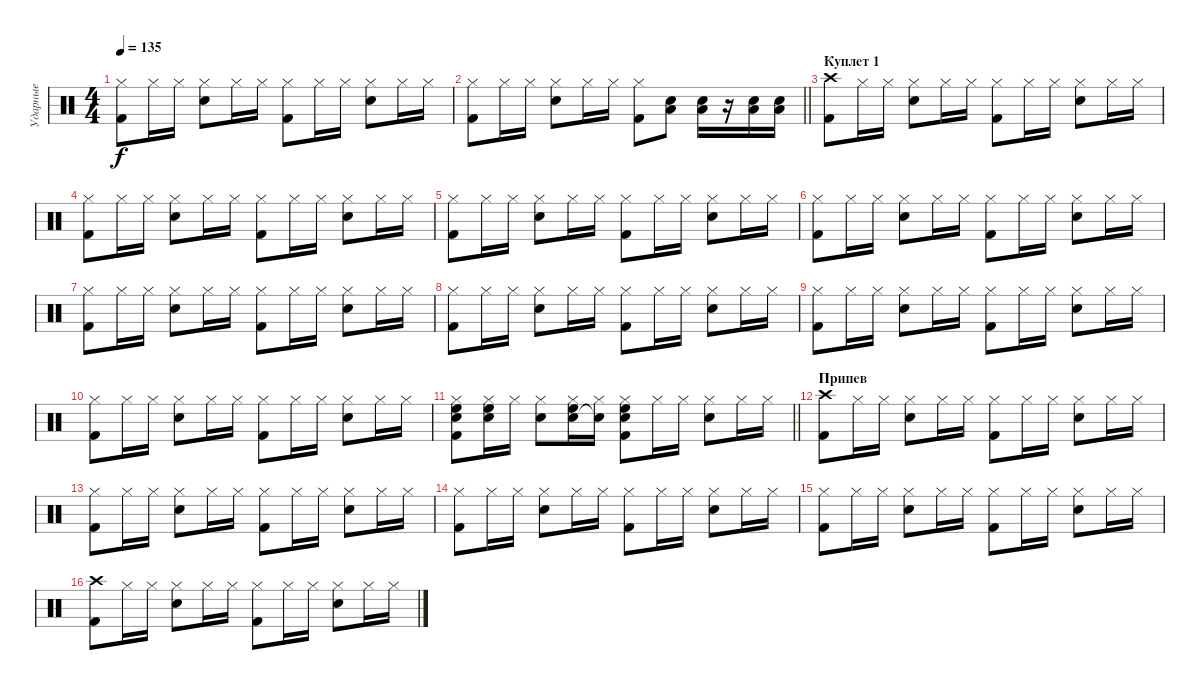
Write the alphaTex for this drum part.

\track ("Ударные" "Ударные") {instrument percussion}
\staff {score}
\articulation defaults
\ts (4 4)
\tempo 135
\clef neutral
\ks c
("Hi-Hat (closed)" "Kick (hit) 2").8{dy f} "Hi-Hat (closed)".16 "Hi-Hat (closed)".16 ("Hi-Hat (closed)" "Electric Snare (hit)").8 "Hi-Hat (closed)".16 "Hi-Hat (closed)".16 ("Hi-Hat (closed)" "Kick (hit) 2").8 "Hi-Hat (closed)".16 "Hi-Hat (closed)".16 ("Hi-Hat (closed)" "Electric Snare (hit)").8 "Hi-Hat (closed)".16 "Hi-Hat (closed)".16 |
\barLineRight lightlight
("Hi-Hat (closed)" "Kick (hit) 2").8 "Hi-Hat (closed)".16 "Hi-Hat (closed)".16 ("Hi-Hat (closed)" "Electric Snare (hit)").8 "Hi-Hat (closed)".16 "Hi-Hat (closed)".16 ("Hi-Hat (closed)" "Kick (hit) 2").8 ("Electric Snare (hit)" "Low Tom (hit)").8 ("Electric Snare (hit)" "Low Tom (hit)").16 r.16 ("Electric Snare (hit)" "Low Tom (hit)").16 ("Electric Snare (hit)" "Low Tom (hit)").16 |
\section ("" "Куплет 1")
("Crash high (hit)" "Kick (hit) 2").8 "Hi-Hat (closed)".16 "Hi-Hat (closed)".16 ("Hi-Hat (closed)" "Electric Snare (hit)").8 "Hi-Hat (closed)".16 "Hi-Hat (closed)".16 ("Hi-Hat (closed)" "Kick (hit) 2").8 "Hi-Hat (closed)".16 "Hi-Hat (closed)".16 ("Hi-Hat (closed)" "Electric Snare (hit)").8 "Hi-Hat (closed)".16 "Hi-Hat (closed)".16 |
("Hi-Hat (closed)" "Kick (hit) 2").8 "Hi-Hat (closed)".16 "Hi-Hat (closed)".16 ("Hi-Hat (closed)" "Electric Snare (hit)").8 "Hi-Hat (closed)".16 "Hi-Hat (closed)".16 ("Hi-Hat (closed)" "Kick (hit) 2").8 "Hi-Hat (closed)".16 "Hi-Hat (closed)".16 ("Hi-Hat (closed)" "Electric Snare (hit)").8 "Hi-Hat (closed)".16 "Hi-Hat (closed)".16 |
("Hi-Hat (closed)" "Kick (hit) 2").8 "Hi-Hat (closed)".16 "Hi-Hat (closed)".16 ("Hi-Hat (closed)" "Electric Snare (hit)").8 "Hi-Hat (closed)".16 "Hi-Hat (closed)".16 ("Hi-Hat (closed)" "Kick (hit) 2").8 "Hi-Hat (closed)".16 "Hi-Hat (closed)".16 ("Hi-Hat (closed)" "Electric Snare (hit)").8 "Hi-Hat (closed)".16 "Hi-Hat (closed)".16 |
("Hi-Hat (closed)" "Kick (hit) 2").8 "Hi-Hat (closed)".16 "Hi-Hat (closed)".16 ("Hi-Hat (closed)" "Electric Snare (hit)").8 "Hi-Hat (closed)".16 "Hi-Hat (closed)".16 ("Hi-Hat (closed)" "Kick (hit) 2").8 "Hi-Hat (closed)".16 "Hi-Hat (closed)".16 ("Hi-Hat (closed)" "Electric Snare (hit)").8 "Hi-Hat (closed)".16 "Hi-Hat (closed)".16 |
("Hi-Hat (closed)" "Kick (hit) 2").8 "Hi-Hat (closed)".16 "Hi-Hat (closed)".16 ("Hi-Hat (closed)" "Electric Snare (hit)").8 "Hi-Hat (closed)".16 "Hi-Hat (closed)".16 ("Hi-Hat (closed)" "Kick (hit) 2").8 "Hi-Hat (closed)".16 "Hi-Hat (closed)".16 ("Hi-Hat (closed)" "Electric Snare (hit)").8 "Hi-Hat (closed)".16 "Hi-Hat (closed)".16 |
("Hi-Hat (closed)" "Kick (hit) 2").8 "Hi-Hat (closed)".16 "Hi-Hat (closed)".16 ("Hi-Hat (closed)" "Electric Snare (hit)").8 "Hi-Hat (closed)".16 "Hi-Hat (closed)".16 ("Hi-Hat (closed)" "Kick (hit) 2").8 "Hi-Hat (closed)".16 "Hi-Hat (closed)".16 ("Hi-Hat (closed)" "Electric Snare (hit)").8 "Hi-Hat (closed)".16 "Hi-Hat (closed)".16 |
("Hi-Hat (closed)" "Kick (hit) 2").8 "Hi-Hat (closed)".16 "Hi-Hat (closed)".16 ("Hi-Hat (closed)" "Electric Snare (hit)").8 "Hi-Hat (closed)".16 "Hi-Hat (closed)".16 ("Hi-Hat (closed)" "Kick (hit) 2").8 "Hi-Hat (closed)".16 "Hi-Hat (closed)".16 ("Hi-Hat (closed)" "Electric Snare (hit)").8 "Hi-Hat (closed)".16 "Hi-Hat (closed)".16 |
("Hi-Hat (closed)" "Kick (hit) 2").8 "Hi-Hat (closed)".16 "Hi-Hat (closed)".16 ("Hi-Hat (closed)" "Electric Snare (hit)").8 "Hi-Hat (closed)".16 "Hi-Hat (closed)".16 ("Hi-Hat (closed)" "Kick (hit) 2").8 "Hi-Hat (closed)".16 "Hi-Hat (closed)".16 ("Hi-Hat (closed)" "Electric Snare (hit)").8 "Hi-Hat (closed)".16 "Hi-Hat (closed)".16 |
\barLineRight lightlight
("Hi-Hat (closed)" "Kick (hit) 2" "Snare (hit) 2" "High Floor Tom (hit)").8 ("Hi-Hat (closed)" "Snare (hit) 2" "High Floor Tom (hit)").16 "Hi-Hat (closed)".16 ("Hi-Hat (closed)" "Electric Snare (hit)").8 ("Hi-Hat (closed)" "Snare (hit) 2" "High Floor Tom (hit)").16 ("Hi-Hat (closed)" "Snare (hit)"{t}).16 ("Hi-Hat (closed)" "Kick (hit) 2" "Snare (hit) 2" "High Floor Tom (hit)").8 "Hi-Hat (closed)".16 "Hi-Hat (closed)".16 ("Hi-Hat (closed)" "Electric Snare (hit)").8 "Hi-Hat (closed)".16 "Hi-Hat (closed)".16 |
\section ("" "Припев")
("Crash high (hit)" "Kick (hit) 2").8 "Hi-Hat (closed)".16 "Hi-Hat (closed)".16 ("Hi-Hat (closed)" "Electric Snare (hit)").8 "Hi-Hat (closed)".16 "Hi-Hat (closed)".16 ("Hi-Hat (closed)" "Kick (hit) 2").8 "Hi-Hat (closed)".16 "Hi-Hat (closed)".16 ("Hi-Hat (closed)" "Electric Snare (hit)").8 "Hi-Hat (closed)".16 "Hi-Hat (closed)".16 |
("Hi-Hat (closed)" "Kick (hit) 2").8 "Hi-Hat (closed)".16 "Hi-Hat (closed)".16 ("Hi-Hat (closed)" "Electric Snare (hit)").8 "Hi-Hat (closed)".16 "Hi-Hat (closed)".16 ("Hi-Hat (closed)" "Kick (hit) 2").8 "Hi-Hat (closed)".16 "Hi-Hat (closed)".16 ("Hi-Hat (closed)" "Electric Snare (hit)").8 "Hi-Hat (closed)".16 "Hi-Hat (closed)".16 |
("Hi-Hat (closed)" "Kick (hit) 2").8 "Hi-Hat (closed)".16 "Hi-Hat (closed)".16 ("Hi-Hat (closed)" "Electric Snare (hit)").8 "Hi-Hat (closed)".16 "Hi-Hat (closed)".16 ("Hi-Hat (closed)" "Kick (hit) 2").8 "Hi-Hat (closed)".16 "Hi-Hat (closed)".16 ("Hi-Hat (closed)" "Electric Snare (hit)").8 "Hi-Hat (closed)".16 "Hi-Hat (closed)".16 |
("Hi-Hat (closed)" "Kick (hit) 2").8 "Hi-Hat (closed)".16 "Hi-Hat (closed)".16 ("Hi-Hat (closed)" "Electric Snare (hit)").8 "Hi-Hat (closed)".16 "Hi-Hat (closed)".16 ("Hi-Hat (closed)" "Kick (hit) 2").8 "Hi-Hat (closed)".16 "Hi-Hat (closed)".16 ("Hi-Hat (closed)" "Electric Snare (hit)").8 "Hi-Hat (closed)".16 "Hi-Hat (closed)".16 |
("Crash high (hit)" "Kick (hit) 2").8 "Hi-Hat (closed)".16 "Hi-Hat (closed)".16 ("Hi-Hat (closed)" "Electric Snare (hit)").8 "Hi-Hat (closed)".16 "Hi-Hat (closed)".16 ("Hi-Hat (closed)" "Kick (hit) 2").8 "Hi-Hat (closed)".16 "Hi-Hat (closed)".16 ("Hi-Hat (closed)" "Electric Snare (hit)").8 "Hi-Hat (closed)".16 "Hi-Hat (closed)".16
